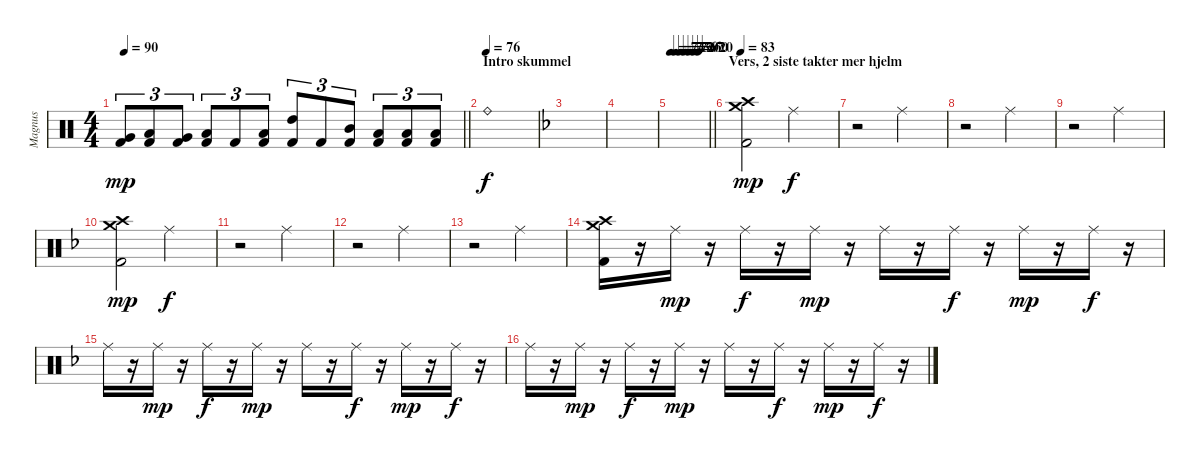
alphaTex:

\track ("Magnus" "Magnus") {instrument percussion}
\staff {score}
\articulation defaults
\ts (4 4)
\tempo 90
\clef neutral
\barLineRight lightlight
\ks c
("Very Low Tom (hit)" "Kick (hit) 2").8{tu (3 2) dy mp} ("Low Tom (hit)" "Kick (hit) 2").8{tu (3 2)} ("Very Low Tom (hit)" "Kick (hit) 2").8{tu (3 2)} ("Low Floor Tom (hit)" "Kick (hit) 2").8{tu (3 2)} "Kick (hit) 2".8{tu (3 2)} ("Low Floor Tom (hit)" "Kick (hit) 2").8{tu (3 2)} ("High Tom (hit)" "Kick (hit) 2").8{tu (3 2)} "Kick (hit) 2".8{tu (3 2)} ("Mid Tom (hit)" "Kick (hit) 2").8{tu (3 2)} ("Low Tom (hit)" "Kick (hit) 2").8{tu (3 2)} ("Low Tom (hit)" "Kick (hit) 2").8{tu (3 2)} ("Low Tom (hit)" "Kick (hit) 2").8{tu (3 2)} |
\section ("" "Intro skummel")
\tempo (76)
"Ride (bell)".1{dy f volume 14} |
\ks dminor
|
|
\tempo 74
\tempo (73 0.125)
\tempo (72 0.25)
\tempo (70 0.375)
\tempo (67 0.5)
\tempo (60 0.625)
\tempo (20 0.75)
\barLineRight lightlight
|
\section ("" "Vers, 2 siste takter mer hjelm")
\tempo 83
("Crash medium (hit)" "Crash high (hit)" "Kick (hit) 2").2{dy mp} "Ride (middle)".2{dy f} |
r.2 "Ride (middle)".2 |
r.2 "Ride (middle)".2 |
r.2 "Ride (middle)".2 |
("Crash medium (hit)" "Crash high (hit)" "Kick (hit) 2").2{dy mp} "Ride (middle)".2{dy f} |
r.2 "Ride (middle)".2 |
r.2 "Ride (middle)".2 |
r.2 "Ride (middle)".2 |
("Crash medium (hit)" "Crash high (hit)" "Kick (hit) 2").16 r.16 "Ride (middle)".16{dy mp} r.16 "Ride (middle)".16{dy f} r.16 "Ride (middle)".16{dy mp} r.16 "Ride (middle)".16 r.16 "Ride (middle)".16{dy f} r.16 "Ride (middle)".16{dy mp} r.16 "Ride (middle)".16{dy f} r.16 |
"Ride (middle)".16 r.16 "Ride (middle)".16{dy mp} r.16 "Ride (middle)".16{dy f} r.16 "Ride (middle)".16{dy mp} r.16 "Ride (middle)".16 r.16 "Ride (middle)".16{dy f} r.16 "Ride (middle)".16{dy mp} r.16 "Ride (middle)".16{dy f} r.16 |
"Ride (middle)".16 r.16 "Ride (middle)".16{dy mp} r.16 "Ride (middle)".16{dy f} r.16 "Ride (middle)".16{dy mp} r.16 "Ride (middle)".16 r.16 "Ride (middle)".16{dy f} r.16 "Ride (middle)".16{dy mp} r.16 "Ride (middle)".16{dy f} r.16
